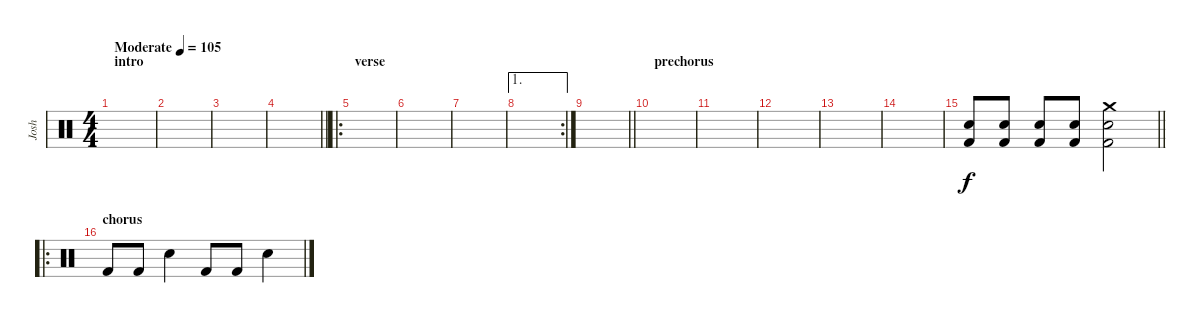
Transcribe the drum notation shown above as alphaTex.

\track ("Josh" "Josh") {instrument percussion}
\staff {score}
\articulation defaults
\ts (4 4)
\section ("" "intro")
\tempo (105 "Moderate")
\clef neutral
\ks c
|
|
|
\barLineRight lightlight
|
\ro
\section ("" "verse")
|
|
|
\ae 1
\rc 2
|
\barLineRight lightlight
|
\section ("" "prechorus")
|
|
|
|
|
\barLineRight lightlight
("Electric Snare (hit)" "Kick (hit) 2").8 ("Electric Snare (hit)" "Kick (hit) 2").8 ("Electric Snare (hit)" "Kick (hit) 2").8 ("Electric Snare (hit)" "Kick (hit) 2").8 ("Crash medium (hit)" "Electric Snare (hit)" "Kick (hit) 2").2 |
\ro
\section ("" "chorus")
"Kick (hit) 2".8 "Kick (hit) 2".8 "Electric Snare (hit)".4 "Kick (hit) 2".8 "Kick (hit) 2".8 "Electric Snare (hit)".4
